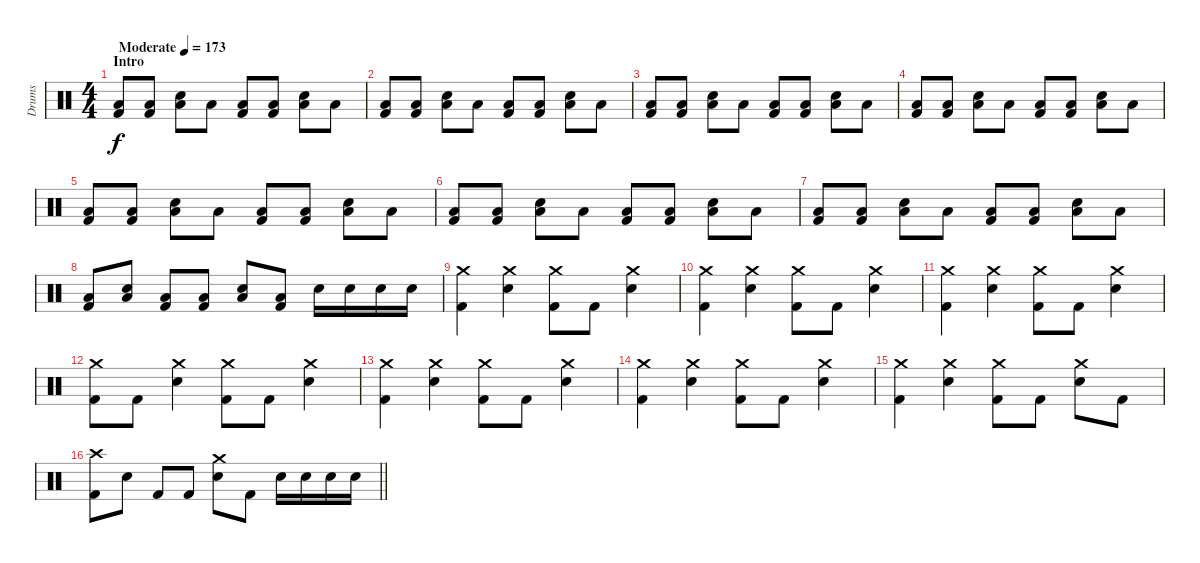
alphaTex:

\track ("Drums" "Drums") {instrument percussion}
\staff {score}
\articulation defaults
\ts (4 4)
\section ("" "Intro")
\tempo (173 "Moderate")
\clef neutral
\ks c
("Low Floor Tom (hit)" "Kick (hit) 2").8{dy f} ("Low Floor Tom (hit)" "Kick (hit) 2").8 ("Low Floor Tom (hit)" "Electric Snare (hit)").8 "Low Floor Tom (hit)".8 ("Low Floor Tom (hit)" "Kick (hit) 2").8 ("Low Floor Tom (hit)" "Kick (hit) 2").8 ("Low Floor Tom (hit)" "Electric Snare (hit)").8 "Low Floor Tom (hit)".8 |
("Low Floor Tom (hit)" "Kick (hit) 2").8 ("Low Floor Tom (hit)" "Kick (hit) 2").8 ("Low Floor Tom (hit)" "Electric Snare (hit)").8 "Low Floor Tom (hit)".8 ("Low Floor Tom (hit)" "Kick (hit) 2").8 ("Low Floor Tom (hit)" "Kick (hit) 2").8 ("Low Floor Tom (hit)" "Electric Snare (hit)").8 "Low Floor Tom (hit)".8 |
("Low Floor Tom (hit)" "Kick (hit) 2").8 ("Low Floor Tom (hit)" "Kick (hit) 2").8 ("Low Floor Tom (hit)" "Electric Snare (hit)").8 "Low Floor Tom (hit)".8 ("Low Floor Tom (hit)" "Kick (hit) 2").8 ("Low Floor Tom (hit)" "Kick (hit) 2").8 ("Low Floor Tom (hit)" "Electric Snare (hit)").8 "Low Floor Tom (hit)".8 |
("Low Floor Tom (hit)" "Kick (hit) 2").8 ("Low Floor Tom (hit)" "Kick (hit) 2").8 ("Low Floor Tom (hit)" "Electric Snare (hit)").8 "Low Floor Tom (hit)".8 ("Low Floor Tom (hit)" "Kick (hit) 2").8 ("Low Floor Tom (hit)" "Kick (hit) 2").8 ("Low Floor Tom (hit)" "Electric Snare (hit)").8 "Low Floor Tom (hit)".8 |
("Low Floor Tom (hit)" "Kick (hit) 2").8 ("Low Floor Tom (hit)" "Kick (hit) 2").8 ("Low Floor Tom (hit)" "Electric Snare (hit)").8 "Low Floor Tom (hit)".8 ("Low Floor Tom (hit)" "Kick (hit) 2").8 ("Low Floor Tom (hit)" "Kick (hit) 2").8 ("Low Floor Tom (hit)" "Electric Snare (hit)").8 "Low Floor Tom (hit)".8 |
("Low Floor Tom (hit)" "Kick (hit) 2").8 ("Low Floor Tom (hit)" "Kick (hit) 2").8 ("Low Floor Tom (hit)" "Electric Snare (hit)").8 "Low Floor Tom (hit)".8 ("Low Floor Tom (hit)" "Kick (hit) 2").8 ("Low Floor Tom (hit)" "Kick (hit) 2").8 ("Low Floor Tom (hit)" "Electric Snare (hit)").8 "Low Floor Tom (hit)".8 |
("Low Floor Tom (hit)" "Kick (hit) 2").8 ("Low Floor Tom (hit)" "Kick (hit) 2").8 ("Low Floor Tom (hit)" "Electric Snare (hit)").8 "Low Floor Tom (hit)".8 ("Low Floor Tom (hit)" "Kick (hit) 2").8 ("Low Floor Tom (hit)" "Kick (hit) 2").8 ("Low Floor Tom (hit)" "Electric Snare (hit)").8 "Low Floor Tom (hit)".8 |
("Low Floor Tom (hit)" "Kick (hit) 2").8 ("Low Floor Tom (hit)" "Electric Snare (hit)").8 ("Low Floor Tom (hit)" "Kick (hit) 2").8 ("Low Floor Tom (hit)" "Kick (hit) 2").8 ("Low Floor Tom (hit)" "Electric Snare (hit)").8 ("Low Floor Tom (hit)" "Kick (hit) 2").8 "Electric Snare (hit)".16 "Electric Snare (hit)".16 "Electric Snare (hit)".16 "Electric Snare (hit)".16 |
("Crash medium (hit)" "Kick (hit) 2").4 ("Crash medium (hit)" "Electric Snare (hit)").4 ("Crash medium (hit)" "Kick (hit) 2").8 "Kick (hit) 2".8 ("Crash medium (hit)" "Electric Snare (hit)").4 |
("Crash medium (hit)" "Kick (hit) 2").4 ("Crash medium (hit)" "Electric Snare (hit)").4 ("Crash medium (hit)" "Kick (hit) 2").8 "Kick (hit) 2".8 ("Crash medium (hit)" "Electric Snare (hit)").4 |
("Crash medium (hit)" "Kick (hit) 2").4 ("Crash medium (hit)" "Electric Snare (hit)").4 ("Crash medium (hit)" "Kick (hit) 2").8 "Kick (hit) 2".8 ("Crash medium (hit)" "Electric Snare (hit)").4 |
("Crash medium (hit)" "Kick (hit) 2").8 "Kick (hit) 2".8 ("Crash medium (hit)" "Electric Snare (hit)").4 ("Crash medium (hit)" "Kick (hit) 2").8 "Kick (hit) 2".8 ("Crash medium (hit)" "Electric Snare (hit)").4 |
("Crash medium (hit)" "Kick (hit) 2").4 ("Crash medium (hit)" "Electric Snare (hit)").4 ("Crash medium (hit)" "Kick (hit) 2").8 "Kick (hit) 2".8 ("Crash medium (hit)" "Electric Snare (hit)").4 |
("Crash medium (hit)" "Kick (hit) 2").4 ("Crash medium (hit)" "Electric Snare (hit)").4 ("Crash medium (hit)" "Kick (hit) 2").8 "Kick (hit) 2".8 ("Crash medium (hit)" "Electric Snare (hit)").4 |
("Crash medium (hit)" "Kick (hit) 2").4 ("Crash medium (hit)" "Electric Snare (hit)").4 ("Crash medium (hit)" "Kick (hit) 2").8 "Kick (hit) 2".8 ("Crash medium (hit)" "Electric Snare (hit)").8 "Kick (hit) 2".8 |
\barLineRight lightlight
("Crash high (hit)" "Kick (hit) 2").8 "Electric Snare (hit)".8 "Kick (hit) 2".8 "Kick (hit) 2".8 ("Crash medium (hit)" "Electric Snare (hit)").8 "Kick (hit) 2".8 "Electric Snare (hit)".16 "Electric Snare (hit)".16 "Electric Snare (hit)".16 "Electric Snare (hit)".16
